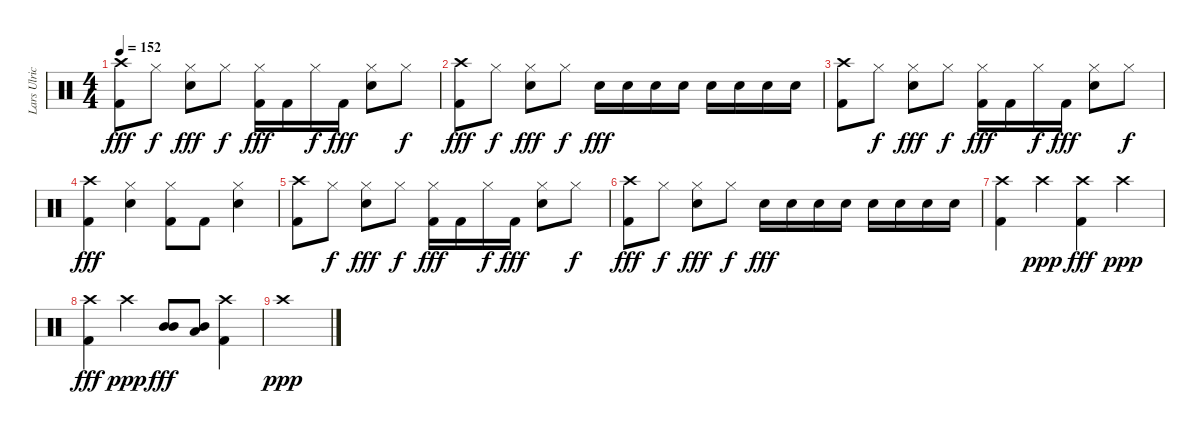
\track ("Lars Ulrich" "Lars Ulric") {instrument percussion}
\staff {score}
\articulation defaults
\ts (4 4)
\tempo 152
\clef neutral
\ks c
("Crash high (hit)" "Kick (hit) 2").8{dy fff} "Hi-Hat (closed)".8{dy f} ("Hi-Hat (closed)" "Snare (hit) 2").8{dy fff} "Hi-Hat (closed)".8{dy f} ("Hi-Hat (closed)" "Kick (hit) 2").16{dy fff} "Kick (hit) 2".16 "Hi-Hat (closed)".16{dy f} "Kick (hit) 2".16{dy fff} ("Hi-Hat (closed)" "Snare (hit) 2").8 "Hi-Hat (closed)".8{dy f} |
("Crash high (hit)" "Kick (hit) 2").8{dy fff} "Hi-Hat (closed)".8{dy f} ("Hi-Hat (closed)" "Snare (hit) 2").8{dy fff} "Hi-Hat (closed)".8{dy f} "Snare (hit) 2".16{dy fff} "Snare (hit) 2".16 "Snare (hit) 2".16 "Snare (hit) 2".16 "Snare (hit) 2".16 "Snare (hit) 2".16 "Snare (hit) 2".16 "Snare (hit) 2".16 |
("Crash high (hit)" "Kick (hit) 2").8 "Hi-Hat (closed)".8{dy f} ("Hi-Hat (closed)" "Snare (hit) 2").8{dy fff} "Hi-Hat (closed)".8{dy f} ("Hi-Hat (closed)" "Kick (hit) 2").16{dy fff} "Kick (hit) 2".16 "Hi-Hat (closed)".16{dy f} "Kick (hit) 2".16{dy fff} ("Hi-Hat (closed)" "Snare (hit) 2").8 "Hi-Hat (closed)".8{dy f} |
("Crash high (hit)" "Kick (hit) 2").4{dy fff} ("Hi-Hat (closed)" "Snare (hit) 2").4 ("Hi-Hat (closed)" "Kick (hit) 2").8 "Kick (hit) 2".8 ("Hi-Hat (closed)" "Snare (hit) 2").4 |
("Crash high (hit)" "Kick (hit) 2").8 "Hi-Hat (closed)".8{dy f} ("Hi-Hat (closed)" "Snare (hit) 2").8{dy fff} "Hi-Hat (closed)".8{dy f} ("Hi-Hat (closed)" "Kick (hit) 2").16{dy fff} "Kick (hit) 2".16 "Hi-Hat (closed)".16{dy f} "Kick (hit) 2".16{dy fff} ("Hi-Hat (closed)" "Snare (hit) 2").8 "Hi-Hat (closed)".8{dy f} |
("Crash high (hit)" "Kick (hit) 2").8{dy fff} "Hi-Hat (closed)".8{dy f} ("Hi-Hat (closed)" "Snare (hit) 2").8{dy fff} "Hi-Hat (closed)".8{dy f} "Snare (hit) 2".16{dy fff} "Snare (hit) 2".16 "Snare (hit) 2".16 "Snare (hit) 2".16 "Snare (hit) 2".16 "Snare (hit) 2".16 "Snare (hit) 2".16 "Snare (hit) 2".16 |
("Crash high (hit)" "Kick (hit) 2").4 "Crash high (hit)".4{dy ppp} ("Crash high (hit)" "Kick (hit) 2").4{dy fff} "Crash high (hit)".4{dy ppp} |
("Crash high (hit)" "Kick (hit) 2").4{dy fff} "Crash high (hit)".4{dy ppp} ("Mid Tom (hit)" "Mid Tom (hit)").8{dy fff} ("Mid Tom (hit)" "Low Tom (hit)").8 ("Crash high (hit)" "Kick (hit) 2").4 |
"Crash high (hit)".1{dy ppp volume 0}
